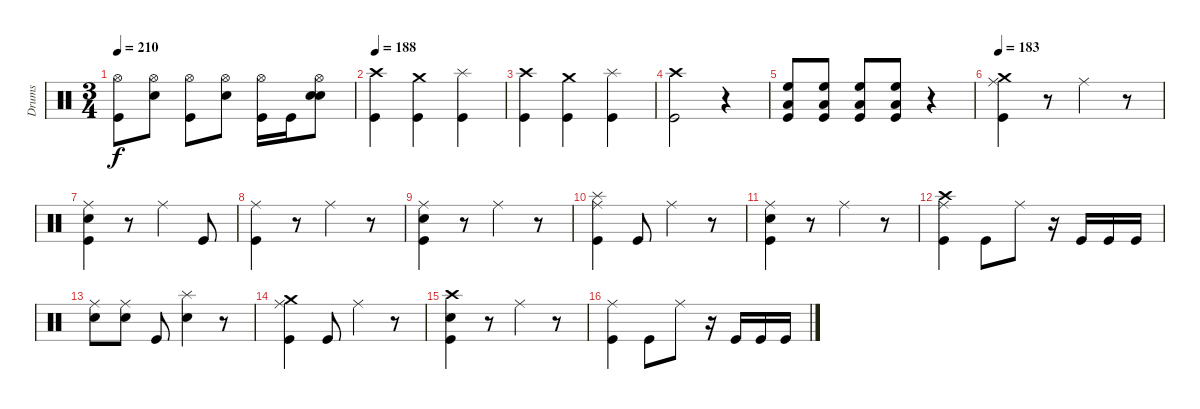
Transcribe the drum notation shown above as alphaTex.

\track ("Drums" "Drums") {instrument percussion}
\staff {score}
\articulation defaults
\ts (3 4)
\tempo 210
\clef neutral
\ks c
("Hi-Hat (open)" "Kick (hit)").8{dy f} ("Hi-Hat (open)" "Snare (hit) 2").8 ("Hi-Hat (open)" "Kick (hit)").8 ("Hi-Hat (open)" "Snare (hit) 2").8 ("Hi-Hat (open)" "Kick (hit)").16 "Kick (hit)".16 ("Hi-Hat (open)" "Snare (hit) 2" "Snare (hit) 2").8 |
\tempo 188
("Crash high (hit)" "Kick (hit)").4 ("Crash medium (hit)" "Kick (hit)").4 ("Splash (hit)" "Kick (hit)").4 |
("Crash high (hit)" "Kick (hit)").4 ("Crash medium (hit)" "Kick (hit)").4 ("Splash (hit)" "Kick (hit)").4 |
("Crash high (hit)" "Kick (hit)").2 r.4 |
("High Floor Tom (hit)" "Low Tom (hit)" "Kick (hit)").8 ("High Floor Tom (hit)" "Low Tom (hit)" "Kick (hit)").8 ("High Floor Tom (hit)" "Low Tom (hit)" "Kick (hit)").8 ("High Floor Tom (hit)" "Low Tom (hit)" "Kick (hit)").8 r.4 |
\tempo 183
("Crash medium (hit)" "Ride (middle)" "Kick (hit)").4 r.8 "Ride (middle)".4 r.8 |
("Ride (middle)" "Snare (hit) 2" "Kick (hit)").4 r.8 "Ride (middle)".4 "Kick (hit)".8 |
("Ride (middle)" "Kick (hit)").4 r.8 "Ride (middle)".4 r.8 |
("Ride (middle)" "Snare (hit) 2" "Kick (hit)").4 r.8 "Ride (middle)".4 r.8 |
("Splash (hit)" "Ride (middle)" "Kick (hit)").4 "Kick (hit)".8 "Ride (middle)".4 r.8 |
("Ride (middle)" "Snare (hit) 2" "Kick (hit)").4 r.8 "Ride (middle)".4 r.8 |
("Crash high (hit)" "Ride (middle)" "Kick (hit)").4 "Kick (hit)".8 "Ride (middle)".8 r.16 "Kick (hit)".16 "Kick (hit)".16 "Kick (hit)".16 |
("Ride (middle)" "Snare (hit) 2").8 ("Ride (middle)" "Snare (hit) 2").8 "Kick (hit)".8 ("Splash (hit)" "Snare (hit) 2").4 r.8 |
("Crash medium (hit)" "Ride (middle)" "Kick (hit)").4 "Kick (hit)".8 "Ride (middle)".4 r.8 |
("Crash high (hit)" "Snare (hit) 2" "Kick (hit)").4 r.8 "Ride (middle)".4 r.8 |
("Ride (middle)" "Kick (hit)").4 "Kick (hit)".8 "Ride (middle)".8 r.16 "Kick (hit)".16 "Kick (hit)".16 "Kick (hit)".16
